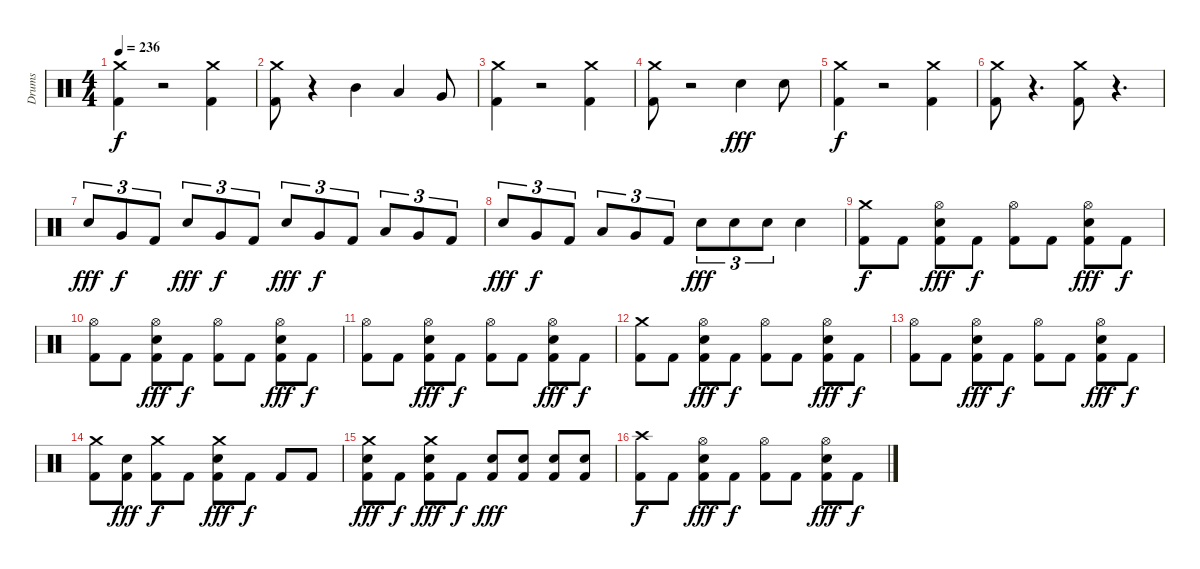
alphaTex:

\track ("Drums" "Drums") {instrument percussion}
\staff {score}
\articulation defaults
\ts (4 4)
\tempo 236
\clef neutral
\ks c
("Crash medium (hit)" "Kick (hit) 2").4{dy f} r.2 ("Crash medium (hit)" "Kick (hit) 2").4 |
("Crash medium (hit)" "Kick (hit) 2").8 r.4 "Mid Tom (hit)".4 "Low Tom (hit)".4 "Very Low Tom (hit)".8 |
("Crash medium (hit)" "Kick (hit) 2").4 r.2 ("Crash medium (hit)" "Kick (hit) 2").4 |
("Crash medium (hit)" "Kick (hit) 2").8 r.2 "Electric Snare (hit)".4{dy fff} "Electric Snare (hit)".8 |
("Crash medium (hit)" "Kick (hit) 2").4{dy f} r.2 ("Crash medium (hit)" "Kick (hit) 2").4 |
("Crash medium (hit)" "Kick (hit) 2").8 r.4{d} ("Crash medium (hit)" "Kick (hit) 2").8 r.4{d} |
"Electric Snare (hit)".8{tu (3 2) dy fff} "Very Low Tom (hit)".8{tu (3 2) dy f} "Kick (hit) 2".8{tu (3 2)} "Electric Snare (hit)".8{tu (3 2) dy fff} "Very Low Tom (hit)".8{tu (3 2) dy f} "Kick (hit) 2".8{tu (3 2)} "Electric Snare (hit)".8{tu (3 2) dy fff} "Very Low Tom (hit)".8{tu (3 2) dy f} "Kick (hit) 2".8{tu (3 2)} "Low Tom (hit)".8{tu (3 2)} "Very Low Tom (hit)".8{tu (3 2)} "Kick (hit) 2".8{tu (3 2)} |
"Electric Snare (hit)".8{tu (3 2) dy fff} "Very Low Tom (hit)".8{tu (3 2) dy f} "Kick (hit) 2".8{tu (3 2)} "Low Tom (hit)".8{tu (3 2)} "Very Low Tom (hit)".8{tu (3 2)} "Kick (hit) 2".8{tu (3 2)} "Electric Snare (hit)".8{tu (3 2) dy fff} "Electric Snare (hit)".8{tu (3 2)} "Electric Snare (hit)".8{tu (3 2)} "Electric Snare (hit)".4 |
("Crash medium (hit)" "Kick (hit) 2").8{dy f} "Kick (hit) 2".8 ("Hi-Hat (open)" "Kick (hit) 2" "Electric Snare (hit)").8{dy fff} "Kick (hit) 2".8{dy f} ("Hi-Hat (open)" "Kick (hit) 2").8 "Kick (hit) 2".8 ("Hi-Hat (open)" "Kick (hit) 2" "Electric Snare (hit)").8{dy fff} "Kick (hit) 2".8{dy f} |
("Hi-Hat (open)" "Kick (hit) 2").8 "Kick (hit) 2".8 ("Hi-Hat (open)" "Kick (hit) 2" "Electric Snare (hit)").8{dy fff} "Kick (hit) 2".8{dy f} ("Hi-Hat (open)" "Kick (hit) 2").8 "Kick (hit) 2".8 ("Hi-Hat (open)" "Kick (hit) 2" "Electric Snare (hit)").8{dy fff} "Kick (hit) 2".8{dy f} |
("Hi-Hat (open)" "Kick (hit) 2").8 "Kick (hit) 2".8 ("Hi-Hat (open)" "Kick (hit) 2" "Electric Snare (hit)").8{dy fff} "Kick (hit) 2".8{dy f} ("Hi-Hat (open)" "Kick (hit) 2").8 "Kick (hit) 2".8 ("Hi-Hat (open)" "Kick (hit) 2" "Electric Snare (hit)").8{dy fff} "Kick (hit) 2".8{dy f} |
("Crash medium (hit)" "Kick (hit) 2").8 "Kick (hit) 2".8 ("Hi-Hat (open)" "Kick (hit) 2" "Electric Snare (hit)").8{dy fff} "Kick (hit) 2".8{dy f} ("Hi-Hat (open)" "Kick (hit) 2").8 "Kick (hit) 2".8 ("Hi-Hat (open)" "Kick (hit) 2" "Electric Snare (hit)").8{dy fff} "Kick (hit) 2".8{dy f} |
("Hi-Hat (open)" "Kick (hit) 2").8 "Kick (hit) 2".8 ("Hi-Hat (open)" "Kick (hit) 2" "Electric Snare (hit)").8{dy fff} "Kick (hit) 2".8{dy f} ("Hi-Hat (open)" "Kick (hit) 2").8 "Kick (hit) 2".8 ("Hi-Hat (open)" "Kick (hit) 2" "Electric Snare (hit)").8{dy fff} "Kick (hit) 2".8{dy f} |
("Crash medium (hit)" "Kick (hit) 2").8 ("Kick (hit) 2" "Electric Snare (hit)").8{dy fff} ("Crash medium (hit)" "Kick (hit) 2").8{dy f} "Kick (hit) 2".8 ("Crash medium (hit)" "Kick (hit) 2" "Electric Snare (hit)").8{dy fff} "Kick (hit) 2".8{dy f} "Kick (hit) 2".8 "Kick (hit) 2".8 |
("Crash medium (hit)" "Kick (hit) 2" "Electric Snare (hit)").8{dy fff} "Kick (hit) 2".8{dy f} ("Crash medium (hit)" "Kick (hit) 2" "Electric Snare (hit)").8{dy fff} "Kick (hit) 2".8{dy f} ("Kick (hit) 2" "Electric Snare (hit)").8{dy fff} ("Kick (hit) 2" "Electric Snare (hit)").8 ("Kick (hit) 2" "Electric Snare (hit)").8 ("Kick (hit) 2" "Electric Snare (hit)").8 |
("Crash high (hit)" "Kick (hit) 2").8{dy f} "Kick (hit) 2".8 ("Hi-Hat (open)" "Kick (hit) 2" "Electric Snare (hit)").8{dy fff} "Kick (hit) 2".8{dy f} ("Hi-Hat (open)" "Kick (hit) 2").8 "Kick (hit) 2".8 ("Hi-Hat (open)" "Kick (hit) 2" "Electric Snare (hit)").8{dy fff} "Kick (hit) 2".8{dy f}
